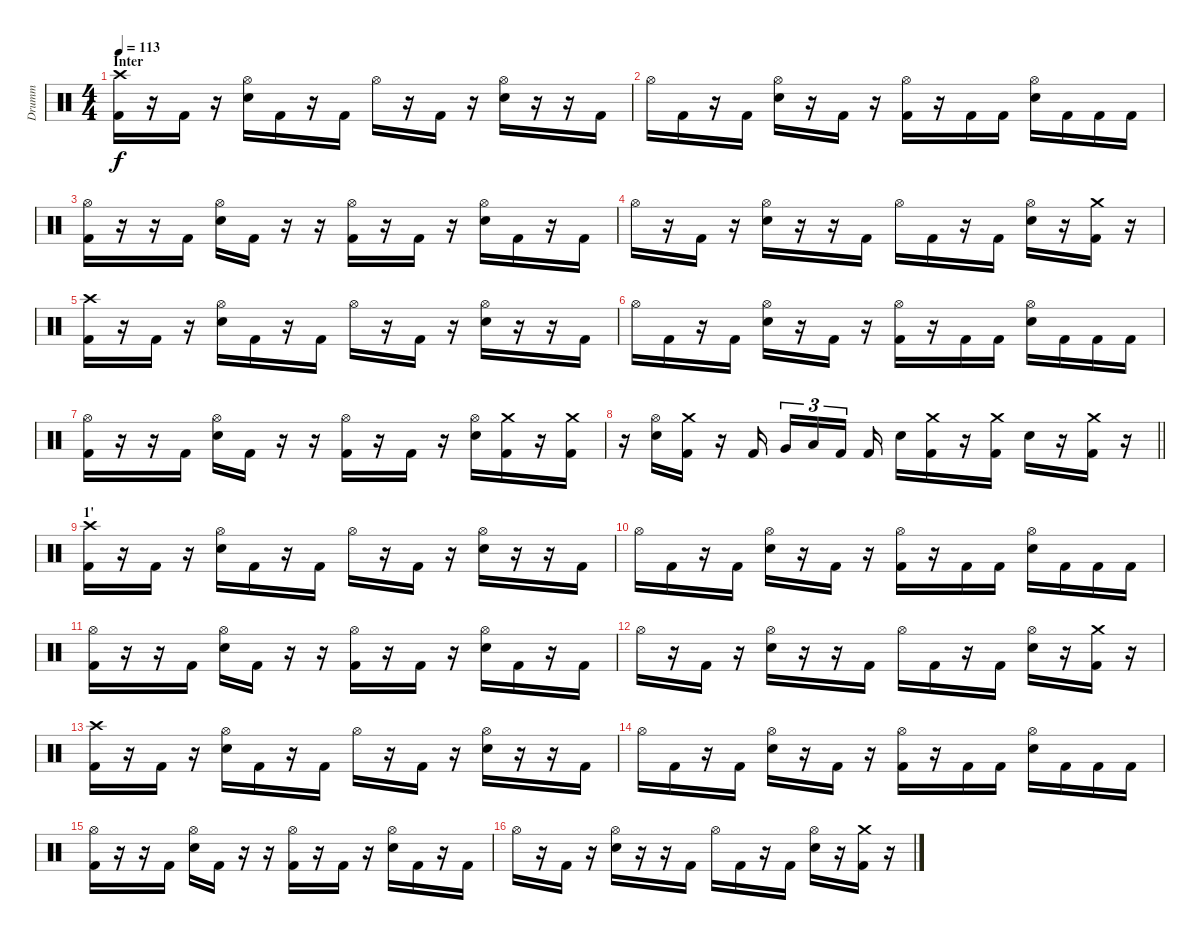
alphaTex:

\track ("Drumm" "Drumm") {instrument percussion}
\staff {score}
\articulation defaults
\ts (4 4)
\section ("" "Inter")
\tempo 113
\clef neutral
\ks c
("Crash high (hit)" "Kick (hit) 2").16{dy f} r.16 "Kick (hit) 2".16 r.16 ("Hi-Hat (open)" "Electric Snare (hit)").16 "Kick (hit) 2".16 r.16 "Kick (hit) 2".16 "Hi-Hat (open)".16 r.16 "Kick (hit) 2".16 r.16 ("Hi-Hat (open)" "Electric Snare (hit)").16 r.16 r.16 "Kick (hit) 2".16 |
"Hi-Hat (open)".16 "Kick (hit) 2".16 r.16 "Kick (hit) 2".16 ("Hi-Hat (open)" "Electric Snare (hit)").16 r.16 "Kick (hit) 2".16 r.16 ("Hi-Hat (open)" "Kick (hit) 2").16 r.16 "Kick (hit) 2".16 "Kick (hit) 2".16 ("Hi-Hat (open)" "Electric Snare (hit)").16 "Kick (hit) 2".16 "Kick (hit) 2".16 "Kick (hit) 2".16 |
("Hi-Hat (open)" "Kick (hit) 2").16 r.16 r.16 "Kick (hit) 2".16 ("Hi-Hat (open)" "Electric Snare (hit)").16 "Kick (hit) 2".16 r.16 r.16 ("Hi-Hat (open)" "Kick (hit) 2").16 r.16 "Kick (hit) 2".16 r.16 ("Hi-Hat (open)" "Electric Snare (hit)").16 "Kick (hit) 2".16 r.16 "Kick (hit) 2".16 |
"Hi-Hat (open)".16 r.16 "Kick (hit) 2".16 r.16 ("Hi-Hat (open)" "Electric Snare (hit)").16 r.16 r.16 "Kick (hit) 2".16 "Hi-Hat (open)".16 "Kick (hit) 2".16 r.16 "Kick (hit) 2".16 ("Hi-Hat (open)" "Electric Snare (hit)").16 r.16 ("Crash medium (hit)" "Kick (hit) 2").16 r.16 |
("Crash high (hit)" "Kick (hit) 2").16 r.16 "Kick (hit) 2".16 r.16 ("Hi-Hat (open)" "Electric Snare (hit)").16 "Kick (hit) 2".16 r.16 "Kick (hit) 2".16 "Hi-Hat (open)".16 r.16 "Kick (hit) 2".16 r.16 ("Hi-Hat (open)" "Electric Snare (hit)").16 r.16 r.16 "Kick (hit) 2".16 |
"Hi-Hat (open)".16 "Kick (hit) 2".16 r.16 "Kick (hit) 2".16 ("Hi-Hat (open)" "Electric Snare (hit)").16 r.16 "Kick (hit) 2".16 r.16 ("Hi-Hat (open)" "Kick (hit) 2").16 r.16 "Kick (hit) 2".16 "Kick (hit) 2".16 ("Hi-Hat (open)" "Electric Snare (hit)").16 "Kick (hit) 2".16 "Kick (hit) 2".16 "Kick (hit) 2".16 |
("Hi-Hat (open)" "Kick (hit) 2").16 r.16 r.16 "Kick (hit) 2".16 ("Hi-Hat (open)" "Electric Snare (hit)").16 "Kick (hit) 2".16 r.16 r.16 ("Hi-Hat (open)" "Kick (hit) 2").16 r.16 "Kick (hit) 2".16 r.16 ("Hi-Hat (open)" "Electric Snare (hit)").16 ("Crash medium (hit)" "Kick (hit) 2").16 r.16 ("Crash medium (hit)" "Kick (hit) 2").16 |
\barLineRight lightlight
r.16 ("Hi-Hat (open)" "Electric Snare (hit)").16 ("Crash medium (hit)" "Kick (hit) 2").16 r.16 "Kick (hit) 2".16{beam splitsecondary} "Very Low Tom (hit)".16{tu (3 2)} "Low Floor Tom (hit)".16{tu (3 2)} "Kick (hit) 2".16{tu (3 2) beam splitsecondary} "Kick (hit) 2".16 "Electric Snare (hit)".16 ("Crash medium (hit)" "Kick (hit) 2").16 r.16 ("Crash medium (hit)" "Kick (hit) 2").16 "Electric Snare (hit)".16 r.16 ("Crash medium (hit)" "Kick (hit) 2").16 r.16 |
\section ("" "1'")
("Crash high (hit)" "Kick (hit) 2").16 r.16 "Kick (hit) 2".16 r.16 ("Hi-Hat (open)" "Electric Snare (hit)").16 "Kick (hit) 2".16 r.16 "Kick (hit) 2".16 "Hi-Hat (open)".16 r.16 "Kick (hit) 2".16 r.16 ("Hi-Hat (open)" "Electric Snare (hit)").16 r.16 r.16 "Kick (hit) 2".16 |
"Hi-Hat (open)".16 "Kick (hit) 2".16 r.16 "Kick (hit) 2".16 ("Hi-Hat (open)" "Electric Snare (hit)").16 r.16 "Kick (hit) 2".16 r.16 ("Hi-Hat (open)" "Kick (hit) 2").16 r.16 "Kick (hit) 2".16 "Kick (hit) 2".16 ("Hi-Hat (open)" "Electric Snare (hit)").16 "Kick (hit) 2".16 "Kick (hit) 2".16 "Kick (hit) 2".16 |
("Hi-Hat (open)" "Kick (hit) 2").16 r.16 r.16 "Kick (hit) 2".16 ("Hi-Hat (open)" "Electric Snare (hit)").16 "Kick (hit) 2".16 r.16 r.16 ("Hi-Hat (open)" "Kick (hit) 2").16 r.16 "Kick (hit) 2".16 r.16 ("Hi-Hat (open)" "Electric Snare (hit)").16 "Kick (hit) 2".16 r.16 "Kick (hit) 2".16 |
"Hi-Hat (open)".16 r.16 "Kick (hit) 2".16 r.16 ("Hi-Hat (open)" "Electric Snare (hit)").16 r.16 r.16 "Kick (hit) 2".16 "Hi-Hat (open)".16 "Kick (hit) 2".16 r.16 "Kick (hit) 2".16 ("Hi-Hat (open)" "Electric Snare (hit)").16 r.16 ("Crash medium (hit)" "Kick (hit) 2").16 r.16 |
("Crash high (hit)" "Kick (hit) 2").16 r.16 "Kick (hit) 2".16 r.16 ("Hi-Hat (open)" "Electric Snare (hit)").16 "Kick (hit) 2".16 r.16 "Kick (hit) 2".16 "Hi-Hat (open)".16 r.16 "Kick (hit) 2".16 r.16 ("Hi-Hat (open)" "Electric Snare (hit)").16 r.16 r.16 "Kick (hit) 2".16 |
"Hi-Hat (open)".16 "Kick (hit) 2".16 r.16 "Kick (hit) 2".16 ("Hi-Hat (open)" "Electric Snare (hit)").16 r.16 "Kick (hit) 2".16 r.16 ("Hi-Hat (open)" "Kick (hit) 2").16 r.16 "Kick (hit) 2".16 "Kick (hit) 2".16 ("Hi-Hat (open)" "Electric Snare (hit)").16 "Kick (hit) 2".16 "Kick (hit) 2".16 "Kick (hit) 2".16 |
("Hi-Hat (open)" "Kick (hit) 2").16 r.16 r.16 "Kick (hit) 2".16 ("Hi-Hat (open)" "Electric Snare (hit)").16 "Kick (hit) 2".16 r.16 r.16 ("Hi-Hat (open)" "Kick (hit) 2").16 r.16 "Kick (hit) 2".16 r.16 ("Hi-Hat (open)" "Electric Snare (hit)").16 "Kick (hit) 2".16 r.16 "Kick (hit) 2".16 |
"Hi-Hat (open)".16 r.16 "Kick (hit) 2".16 r.16 ("Hi-Hat (open)" "Electric Snare (hit)").16 r.16 r.16 "Kick (hit) 2".16 "Hi-Hat (open)".16 "Kick (hit) 2".16 r.16 "Kick (hit) 2".16 ("Hi-Hat (open)" "Electric Snare (hit)").16 r.16 ("Crash medium (hit)" "Kick (hit) 2").16 r.16
